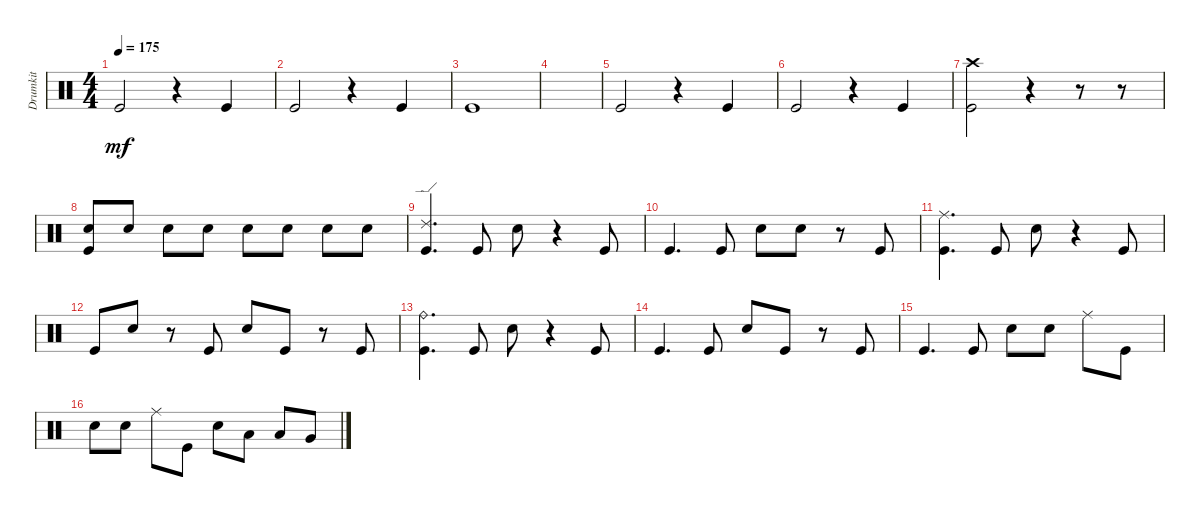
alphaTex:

\track ("Drumkit" "Drumkit") {instrument percussion}
\staff {score}
\articulation defaults
\ts (4 4)
\tempo 175
\clef neutral
\ks c "Kick (hit)".2{dy mf}
r.4 "Kick (hit)".4 |
"Kick (hit)".2 r.4 "Kick (hit)".4 |
"Kick (hit)".1 |
|
"Kick (hit)".2 r.4 "Kick (hit)".4 |
"Kick (hit)".2 r.4 "Kick (hit)".4 |
("Kick (hit)" "Crash high (hit)").2 r.4 r.8 r.8 |
("Snare (hit) 2" "Kick (hit)").8 "Snare (hit) 2".8 "Snare (hit) 2".8 "Snare (hit) 2".8 "Snare (hit) 2".8 "Snare (hit) 2".8 "Snare (hit) 2".8 "Snare (hit) 2".8 |
("Kick (hit)" "Ride (edge) 2").4{d} "Kick (hit)".8 "Snare (hit) 2".8 r.4 "Kick (hit)".8 |
"Kick (hit)".4{d} "Kick (hit)".8 "Snare (hit) 2".8 "Snare (hit) 2".8 r.8 "Kick (hit)".8 |
("Kick (hit)" "Ride (middle)").4{d} "Kick (hit)".8 "Snare (hit) 2".8 r.4 "Kick (hit)".8 |
"Kick (hit)".8 "Snare (hit) 2".8 r.8 "Kick (hit)".8 "Snare (hit) 2".8 "Kick (hit)".8 r.8 "Kick (hit)".8 |
("Kick (hit)" "Ride (bell)").4{d} "Kick (hit)".8 "Snare (hit) 2".8 r.4 "Kick (hit)".8 |
"Kick (hit)".4{d} "Kick (hit)".8 "Snare (hit) 2".8 "Kick (hit)".8 r.8 "Kick (hit)".8 |
"Kick (hit)".4{d} "Kick (hit)".8 "Snare (hit) 2".8 "Snare (hit) 2".8 "Ride (middle)".8 "Kick (hit)".8 |
"Snare (hit) 2".8 "Snare (hit) 2".8 "Ride (middle)".8 "Kick (hit)".8 "Snare (hit) 2".8 "Low Floor Tom (hit)".8 "Low Tom (hit)".8 "Very Low Tom (hit)".8
